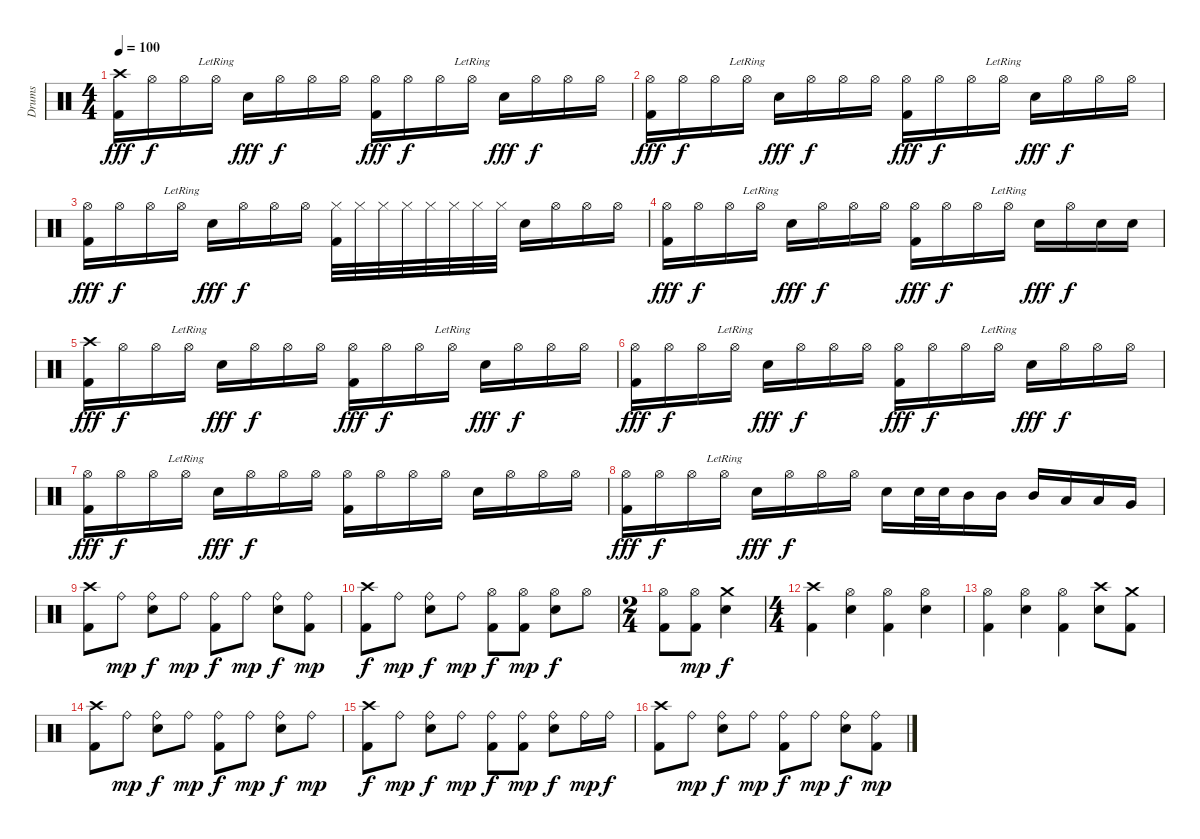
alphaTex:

\track ("Drums" "Drums") {instrument percussion}
\staff {score}
\articulation defaults
\ts (4 4)
\tempo 100
\clef neutral
\ks c
("Crash high (hit)" "Kick (hit) 2").16{dy fff} "Hi-Hat (open)".16{dy f} "Hi-Hat (open)".16 "Hi-Hat (open)"{lr}.16 "Snare (hit) 2".16{dy fff} "Hi-Hat (open)".16{dy f} "Hi-Hat (open)".16 "Hi-Hat (open)".16 ("Hi-Hat (open)" "Kick (hit) 2").16{dy fff} "Hi-Hat (open)".16{dy f} "Hi-Hat (open)".16 "Hi-Hat (open)"{lr}.16 "Snare (hit) 2".16{dy fff} "Hi-Hat (open)".16{dy f} "Hi-Hat (open)".16 "Hi-Hat (open)".16 |
("Hi-Hat (open)" "Kick (hit) 2").16{dy fff} "Hi-Hat (open)".16{dy f} "Hi-Hat (open)".16 "Hi-Hat (open)"{lr}.16 "Snare (hit) 2".16{dy fff} "Hi-Hat (open)".16{dy f} "Hi-Hat (open)".16 "Hi-Hat (open)".16 ("Hi-Hat (open)" "Kick (hit) 2").16{dy fff} "Hi-Hat (open)".16{dy f} "Hi-Hat (open)".16 "Hi-Hat (open)"{lr}.16 "Snare (hit) 2".16{dy fff} "Hi-Hat (open)".16{dy f} "Hi-Hat (open)".16 "Hi-Hat (open)".16 |
("Hi-Hat (open)" "Kick (hit) 2").16{dy fff} "Hi-Hat (open)".16{dy f} "Hi-Hat (open)".16 "Hi-Hat (open)"{lr}.16 "Snare (hit) 2".16{dy fff} "Hi-Hat (open)".16{dy f} "Hi-Hat (open)".16 "Hi-Hat (open)".16 ("Hi-Hat (closed)" "Kick (hit) 2").32 "Hi-Hat (closed)".32 "Hi-Hat (closed)".32 "Hi-Hat (closed)".32 "Hi-Hat (closed)".32 "Hi-Hat (closed)".32 "Hi-Hat (closed)".32 "Hi-Hat (closed)".32 "Snare (hit) 2".16 "Hi-Hat (open)".16 "Hi-Hat (open)".16 "Hi-Hat (open)".16 |
("Hi-Hat (open)" "Kick (hit) 2").16{dy fff} "Hi-Hat (open)".16{dy f} "Hi-Hat (open)".16 "Hi-Hat (open)"{lr}.16 "Snare (hit) 2".16{dy fff} "Hi-Hat (open)".16{dy f} "Hi-Hat (open)".16 "Hi-Hat (open)".16 ("Hi-Hat (open)" "Kick (hit) 2").16{dy fff} "Hi-Hat (open)".16{dy f} "Hi-Hat (open)".16 "Hi-Hat (open)"{lr}.16 "Snare (hit) 2".16{dy fff} "Hi-Hat (open)".16{dy f} "Snare (hit) 2".16 "Snare (hit) 2".16 |
("Crash high (hit)" "Kick (hit) 2").16{dy fff} "Hi-Hat (open)".16{dy f} "Hi-Hat (open)".16 "Hi-Hat (open)"{lr}.16 "Snare (hit) 2".16{dy fff} "Hi-Hat (open)".16{dy f} "Hi-Hat (open)".16 "Hi-Hat (open)".16 ("Hi-Hat (open)" "Kick (hit) 2").16{dy fff} "Hi-Hat (open)".16{dy f} "Hi-Hat (open)".16 "Hi-Hat (open)"{lr}.16 "Snare (hit) 2".16{dy fff} "Hi-Hat (open)".16{dy f} "Hi-Hat (open)".16 "Hi-Hat (open)".16 |
("Hi-Hat (open)" "Kick (hit) 2").16{dy fff} "Hi-Hat (open)".16{dy f} "Hi-Hat (open)".16 "Hi-Hat (open)"{lr}.16 "Snare (hit) 2".16{dy fff} "Hi-Hat (open)".16{dy f} "Hi-Hat (open)".16 "Hi-Hat (open)".16 ("Hi-Hat (open)" "Kick (hit) 2").16{dy fff} "Hi-Hat (open)".16{dy f} "Hi-Hat (open)".16 "Hi-Hat (open)"{lr}.16 "Snare (hit) 2".16{dy fff} "Hi-Hat (open)".16{dy f} "Hi-Hat (open)".16 "Hi-Hat (open)".16 |
("Hi-Hat (open)" "Kick (hit) 2").16{dy fff} "Hi-Hat (open)".16{dy f} "Hi-Hat (open)".16 "Hi-Hat (open)"{lr}.16 "Snare (hit) 2".16{dy fff} "Hi-Hat (open)".16{dy f} "Hi-Hat (open)".16 "Hi-Hat (open)".16 ("Hi-Hat (open)" "Kick (hit) 2").16 "Hi-Hat (open)".16 "Hi-Hat (open)".16 "Hi-Hat (open)".16 "Snare (hit) 2".16 "Hi-Hat (open)".16 "Hi-Hat (open)".16 "Hi-Hat (open)".16 |
("Hi-Hat (open)" "Kick (hit) 2").16{dy fff} "Hi-Hat (open)".16{dy f} "Hi-Hat (open)".16 "Hi-Hat (open)"{lr}.16 "Snare (hit) 2".16{dy fff} "Hi-Hat (open)".16{dy f} "Hi-Hat (open)".16 "Hi-Hat (open)".16 "Snare (hit) 2".16 "Snare (hit) 2".32 "Snare (hit) 2".32 "Mid Tom (hit)".16 "Mid Tom (hit)".16 "Mid Tom (hit)".16 "Low Tom (hit)".16 "Low Tom (hit)".16 "Very Low Tom (hit)".16 |
("Crash high (hit)" "Kick (hit) 2").8 "Ride (bell)".8{dy mp} ("Ride (bell)" "Snare (hit) 2").8{dy f} "Ride (bell)".8{dy mp} ("Ride (bell)" "Kick (hit) 2").8{dy f} "Ride (bell)".8{dy mp} ("Ride (bell)" "Snare (hit) 2").8{dy f} ("Ride (bell)" "Kick (hit) 2").8{dy mp} |
("Crash high (hit)" "Kick (hit) 2").8{dy f} "Ride (bell)".8{dy mp} ("Ride (bell)" "Snare (hit) 2").8{dy f} "Ride (bell)".8{dy mp} ("Hi-Hat (open)" "Kick (hit) 2").8{dy f} ("Hi-Hat (open)" "Kick (hit) 2").8{dy mp} ("Hi-Hat (open)" "Snare (hit) 2").8{dy f} "Hi-Hat (open)".8 |
\ts (2 4)
("Hi-Hat (open)" "Kick (hit) 2").8 ("Hi-Hat (open)" "Kick (hit) 2").8{dy mp} ("Crash medium (hit)" "Snare (hit) 2").4{dy f} |
\ts (4 4)
("Crash high (hit)" "Kick (hit) 2").4 ("Hi-Hat (open)" "Snare (hit) 2").4 ("Hi-Hat (open)" "Kick (hit) 2").4 ("Hi-Hat (open)" "Snare (hit) 2").4 |
("Hi-Hat (open)" "Kick (hit) 2").4 ("Hi-Hat (open)" "Snare (hit) 2").4 ("Hi-Hat (open)" "Kick (hit) 2").4 ("Crash high (hit)" "Snare (hit) 2").8 ("Crash medium (hit)" "Kick (hit) 2").8 |
("Crash high (hit)" "Kick (hit) 2").8 "Ride (bell)".8{dy mp} ("Ride (bell)" "Snare (hit) 2").8{dy f} "Ride (bell)".8{dy mp} ("Ride (bell)" "Kick (hit) 2").8{dy f} "Ride (bell)".8{dy mp} ("Ride (bell)" "Snare (hit) 2").8{dy f} "Ride (bell)".8{dy mp} |
("Crash high (hit)" "Kick (hit) 2").8{dy f} "Ride (bell)".8{dy mp} ("Ride (bell)" "Snare (hit) 2").8{dy f} "Ride (bell)".8{dy mp} ("Ride (bell)" "Kick (hit) 2").8{dy f} ("Ride (bell)" "Kick (hit) 2").8{dy mp} ("Ride (bell)" "Snare (hit) 2").8{dy f} "Ride (bell)".16{dy mp} "Ride (bell)".16{dy f} |
("Crash high (hit)" "Kick (hit) 2").8 "Ride (bell)".8{dy mp} ("Ride (bell)" "Snare (hit) 2").8{dy f} "Ride (bell)".8{dy mp} ("Ride (bell)" "Kick (hit) 2").8{dy f} "Ride (bell)".8{dy mp} ("Ride (bell)" "Snare (hit) 2").8{dy f} ("Ride (bell)" "Kick (hit) 2").8{dy mp}
